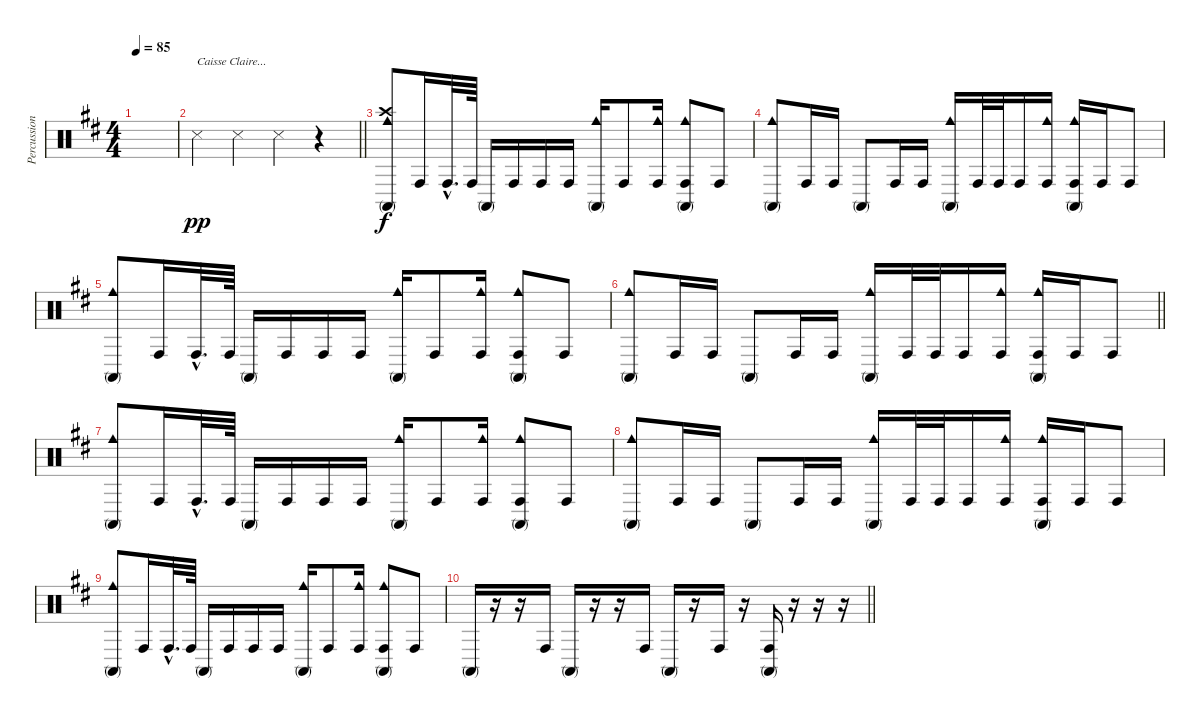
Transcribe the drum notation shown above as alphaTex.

\track ("Percussions" "Percussion") {instrument percussion}
\staff {score}
\articulation defaults
\ts (4 4)
\tempo 85
\clef neutral
\ks bminor
|
\barLineRight lightlight "Snare (side stick) 3".4{txt "Caisse Claire..." dy pp} "Snare (side stick) 3".4 "Snare (side stick) 3".4
r.4 |
("Conga high (mute)" "Crash high (hit)" "Cowbell medium (hit)").8{dy f volume 16} "Conga high (hit)".16 "Conga high (hit)"{hac}.32{d} "Conga high (hit)".64 "Conga high (mute)".16 "Conga high (hit)".16 "Conga high (hit)".16 "Conga high (hit)".16 ("Conga high (mute)" "Cowbell medium (hit)").16 "Conga high (hit)".8 ("Conga high (hit)" "Cowbell medium (hit)").16 ("Conga high (hit)" "Conga high (mute)" "Cowbell medium (hit)").8 "Conga high (hit)".8 |
("Conga high (mute)" "Cowbell medium (hit)").8 "Conga high (hit)".16 "Conga high (hit)".16 "Conga high (mute)".8 "Conga high (hit)".16 "Conga high (hit)".16 ("Conga high (mute)" "Cowbell medium (hit)").16 "Conga high (hit)".32 "Conga high (hit)".32 "Conga high (hit)".16 ("Conga high (hit)" "Cowbell medium (hit)").16 ("Conga high (hit)" "Conga high (mute)" "Cowbell medium (hit)").16 "Conga high (hit)".16 "Conga high (hit)".8 |
("Conga high (mute)" "Cowbell medium (hit)").8 "Conga high (hit)".16 "Conga high (hit)"{hac}.32{d} "Conga high (hit)".64 "Conga high (mute)".16 "Conga high (hit)".16 "Conga high (hit)".16 "Conga high (hit)".16 ("Conga high (mute)" "Cowbell medium (hit)").16 "Conga high (hit)".8 ("Conga high (hit)" "Cowbell medium (hit)").16 ("Conga high (hit)" "Conga high (mute)" "Cowbell medium (hit)").8 "Conga high (hit)".8 |
\barLineRight lightlight
("Conga high (mute)" "Cowbell medium (hit)").8 "Conga high (hit)".16 "Conga high (hit)".16 "Conga high (mute)".8 "Conga high (hit)".16 "Conga high (hit)".16 ("Conga high (mute)" "Cowbell medium (hit)").16 "Conga high (hit)".32 "Conga high (hit)".32 "Conga high (hit)".16 ("Conga high (hit)" "Cowbell medium (hit)").16 ("Conga high (hit)" "Conga high (mute)" "Cowbell medium (hit)").16 "Conga high (hit)".16 "Conga high (hit)".8 |
("Conga high (mute)" "Cowbell medium (hit)").8 "Conga high (hit)".16 "Conga high (hit)"{hac}.32{d} "Conga high (hit)".64 "Conga high (mute)".16 "Conga high (hit)".16 "Conga high (hit)".16 "Conga high (hit)".16 ("Conga high (mute)" "Cowbell medium (hit)").16 "Conga high (hit)".8 ("Conga high (hit)" "Cowbell medium (hit)").16 ("Conga high (hit)" "Conga high (mute)" "Cowbell medium (hit)").8 "Conga high (hit)".8 |
("Conga high (mute)" "Cowbell medium (hit)").8 "Conga high (hit)".16 "Conga high (hit)".16 "Conga high (mute)".8 "Conga high (hit)".16 "Conga high (hit)".16 ("Conga high (mute)" "Cowbell medium (hit)").16 "Conga high (hit)".32 "Conga high (hit)".32 "Conga high (hit)".16 ("Conga high (hit)" "Cowbell medium (hit)").16 ("Conga high (hit)" "Conga high (mute)" "Cowbell medium (hit)").16 "Conga high (hit)".16 "Conga high (hit)".8 |
("Conga high (mute)" "Cowbell medium (hit)").8 "Conga high (hit)".16 "Conga high (hit)"{hac}.32{d} "Conga high (hit)".64 "Conga high (mute)".16 "Conga high (hit)".16 "Conga high (hit)".16 "Conga high (hit)".16 ("Conga high (mute)" "Cowbell medium (hit)").16 "Conga high (hit)".8 ("Conga high (hit)" "Cowbell medium (hit)").16 ("Conga high (hit)" "Conga high (mute)" "Cowbell medium (hit)").8 "Conga high (hit)".8 |
\barLineRight lightlight "Conga high (mute)".16
r.16 r.16 "Conga high (hit)".16 "Conga high (mute)".16 r.16 r.16 "Conga high (hit)".16 "Conga high (mute)".16 r.16 "Conga high (hit)".16 r.16 ("Conga high (hit)" "Conga high (mute)").16 r.16 r.16 r.16
